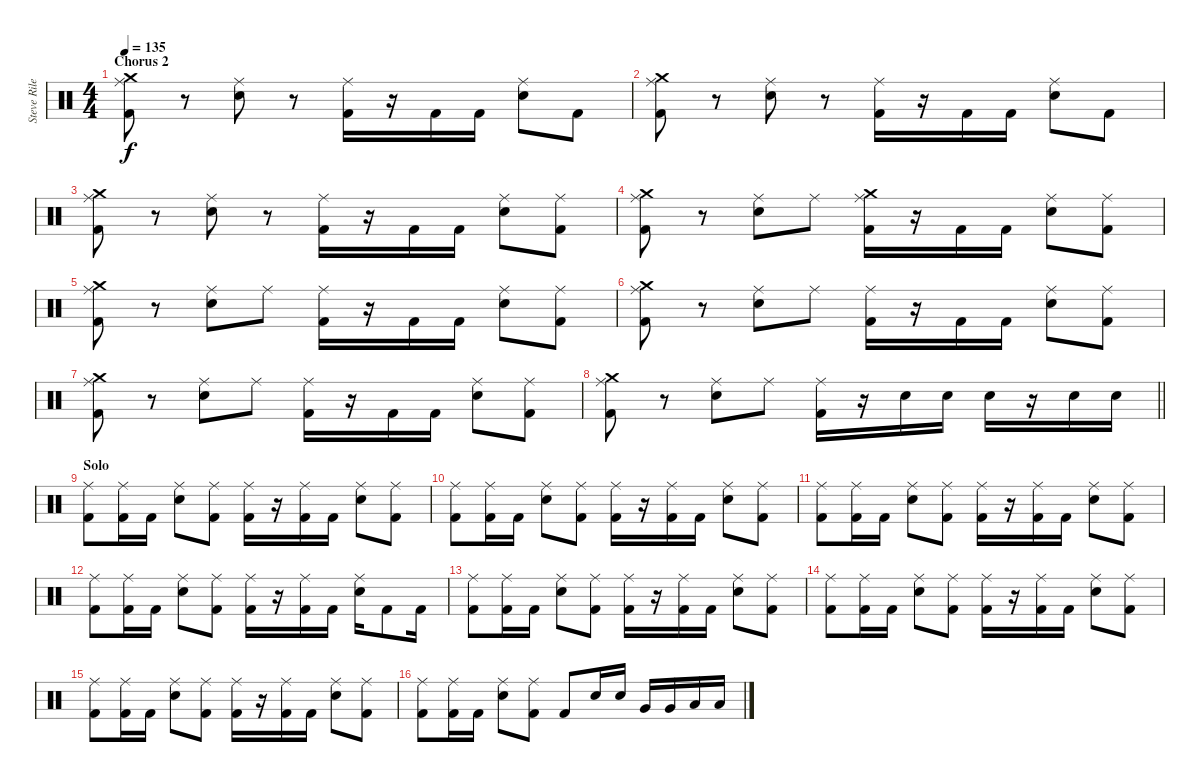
\track ("Steve Riley" "Steve Rile") {instrument percussion}
\staff {score}
\articulation defaults
\ts (4 4)
\section ("" "Chorus 2")
\tempo 135
\clef neutral
\ks c
("Crash medium (hit)" "Ride (middle)" "Kick (hit) 2").8{dy f} r.8 ("Ride (middle)" "Snare (hit) 2").8 r.8 ("Ride (middle)" "Kick (hit) 2").16 r.16 "Kick (hit) 2".16 "Kick (hit) 2".16 ("Ride (middle)" "Snare (hit) 2").8 "Kick (hit) 2".8 |
("Crash medium (hit)" "Ride (middle)" "Kick (hit) 2").8 r.8 ("Ride (middle)" "Snare (hit) 2").8 r.8 ("Ride (middle)" "Kick (hit) 2").16 r.16 "Kick (hit) 2".16 "Kick (hit) 2".16 ("Ride (middle)" "Snare (hit) 2").8 "Kick (hit) 2".8 |
("Crash medium (hit)" "Ride (middle)" "Kick (hit) 2").8 r.8 ("Ride (middle)" "Snare (hit) 2").8 r.8 ("Ride (middle)" "Kick (hit) 2").16 r.16 "Kick (hit) 2".16 "Kick (hit) 2".16 ("Ride (middle)" "Snare (hit) 2").8 ("Ride (middle)" "Kick (hit) 2").8 |
("Crash medium (hit)" "Ride (middle)" "Kick (hit) 2").8 r.8 ("Ride (middle)" "Snare (hit) 2").8 "Ride (middle)".8 ("Crash medium (hit)" "Ride (middle)" "Kick (hit) 2").16 r.16 "Kick (hit) 2".16 "Kick (hit) 2".16 ("Ride (middle)" "Snare (hit) 2").8 ("Ride (middle)" "Kick (hit) 2").8 |
("Crash medium (hit)" "Ride (middle)" "Kick (hit) 2").8 r.8 ("Ride (middle)" "Snare (hit) 2").8 "Ride (middle)".8 ("Ride (middle)" "Kick (hit) 2").16 r.16 "Kick (hit) 2".16 "Kick (hit) 2".16 ("Ride (middle)" "Snare (hit) 2").8 ("Ride (middle)" "Kick (hit) 2").8 |
("Crash medium (hit)" "Ride (middle)" "Kick (hit) 2").8 r.8 ("Ride (middle)" "Snare (hit) 2").8 "Ride (middle)".8 ("Ride (middle)" "Kick (hit) 2").16 r.16 "Kick (hit) 2".16 "Kick (hit) 2".16 ("Ride (middle)" "Snare (hit) 2").8 ("Ride (middle)" "Kick (hit) 2").8 |
("Crash medium (hit)" "Ride (middle)" "Kick (hit) 2").8 r.8 ("Ride (middle)" "Snare (hit) 2").8 "Ride (middle)".8 ("Ride (middle)" "Kick (hit) 2").16 r.16 "Kick (hit) 2".16 "Kick (hit) 2".16 ("Ride (middle)" "Snare (hit) 2").8 ("Ride (middle)" "Kick (hit) 2").8 |
\barLineRight lightlight
("Crash medium (hit)" "Ride (middle)" "Kick (hit) 2").8 r.8 ("Ride (middle)" "Snare (hit) 2").8 "Ride (middle)".8 ("Ride (middle)" "Kick (hit) 2").16 r.16 "Snare (hit) 2".16 "Snare (hit) 2".16 "Snare (hit) 2".16 r.16 "Snare (hit) 2".16 "Snare (hit) 2".16 |
\section ("" "Solo")
("Ride (middle)" "Kick (hit) 2").8 ("Ride (middle)" "Kick (hit) 2").16 "Kick (hit) 2".16 ("Ride (middle)" "Snare (hit) 2").8 ("Ride (middle)" "Kick (hit) 2").8 ("Ride (middle)" "Kick (hit) 2").16 r.16 ("Ride (middle)" "Kick (hit) 2").16 "Kick (hit) 2".16 ("Ride (middle)" "Snare (hit) 2").8 ("Ride (middle)" "Kick (hit) 2").8 |
("Ride (middle)" "Kick (hit) 2").8 ("Ride (middle)" "Kick (hit) 2").16 "Kick (hit) 2".16 ("Ride (middle)" "Snare (hit) 2").8 ("Ride (middle)" "Kick (hit) 2").8 ("Ride (middle)" "Kick (hit) 2").16 r.16 ("Ride (middle)" "Kick (hit) 2").16 "Kick (hit) 2".16 ("Ride (middle)" "Snare (hit) 2").8 ("Ride (middle)" "Kick (hit) 2").8 |
("Ride (middle)" "Kick (hit) 2").8 ("Ride (middle)" "Kick (hit) 2").16 "Kick (hit) 2".16 ("Ride (middle)" "Snare (hit) 2").8 ("Ride (middle)" "Kick (hit) 2").8 ("Ride (middle)" "Kick (hit) 2").16 r.16 ("Ride (middle)" "Kick (hit) 2").16 "Kick (hit) 2".16 ("Ride (middle)" "Snare (hit) 2").8 ("Ride (middle)" "Kick (hit) 2").8 |
("Ride (middle)" "Kick (hit) 2").8 ("Ride (middle)" "Kick (hit) 2").16 "Kick (hit) 2".16 ("Ride (middle)" "Snare (hit) 2").8 ("Ride (middle)" "Kick (hit) 2").8 ("Ride (middle)" "Kick (hit) 2").16 r.16 ("Ride (middle)" "Kick (hit) 2").16 "Kick (hit) 2".16 ("Ride (middle)" "Snare (hit) 2").16 "Kick (hit) 2".8 "Kick (hit) 2".16 |
("Ride (middle)" "Kick (hit) 2").8 ("Ride (middle)" "Kick (hit) 2").16 "Kick (hit) 2".16 ("Ride (middle)" "Snare (hit) 2").8 ("Ride (middle)" "Kick (hit) 2").8 ("Ride (middle)" "Kick (hit) 2").16 r.16 ("Ride (middle)" "Kick (hit) 2").16 "Kick (hit) 2".16 ("Ride (middle)" "Snare (hit) 2").8 ("Ride (middle)" "Kick (hit) 2").8 |
("Ride (middle)" "Kick (hit) 2").8 ("Ride (middle)" "Kick (hit) 2").16 "Kick (hit) 2".16 ("Ride (middle)" "Snare (hit) 2").8 ("Ride (middle)" "Kick (hit) 2").8 ("Ride (middle)" "Kick (hit) 2").16 r.16 ("Ride (middle)" "Kick (hit) 2").16 "Kick (hit) 2".16 ("Ride (middle)" "Snare (hit) 2").8 ("Ride (middle)" "Kick (hit) 2").8 |
("Ride (middle)" "Kick (hit) 2").8 ("Ride (middle)" "Kick (hit) 2").16 "Kick (hit) 2".16 ("Ride (middle)" "Snare (hit) 2").8 ("Ride (middle)" "Kick (hit) 2").8 ("Ride (middle)" "Kick (hit) 2").16 r.16 ("Ride (middle)" "Kick (hit) 2").16 "Kick (hit) 2".16 ("Ride (middle)" "Snare (hit) 2").8 ("Ride (middle)" "Kick (hit) 2").8 |
("Ride (middle)" "Kick (hit) 2").8 ("Ride (middle)" "Kick (hit) 2").16 "Kick (hit) 2".16 ("Ride (middle)" "Snare (hit) 2").8 ("Ride (middle)" "Kick (hit) 2").8 "Kick (hit) 2".8 "Snare (hit) 2".16 "Snare (hit) 2".16 "Very Low Tom (hit)".16 "Very Low Tom (hit)".16 "Low Floor Tom (hit)".16 "Low Floor Tom (hit)".16
